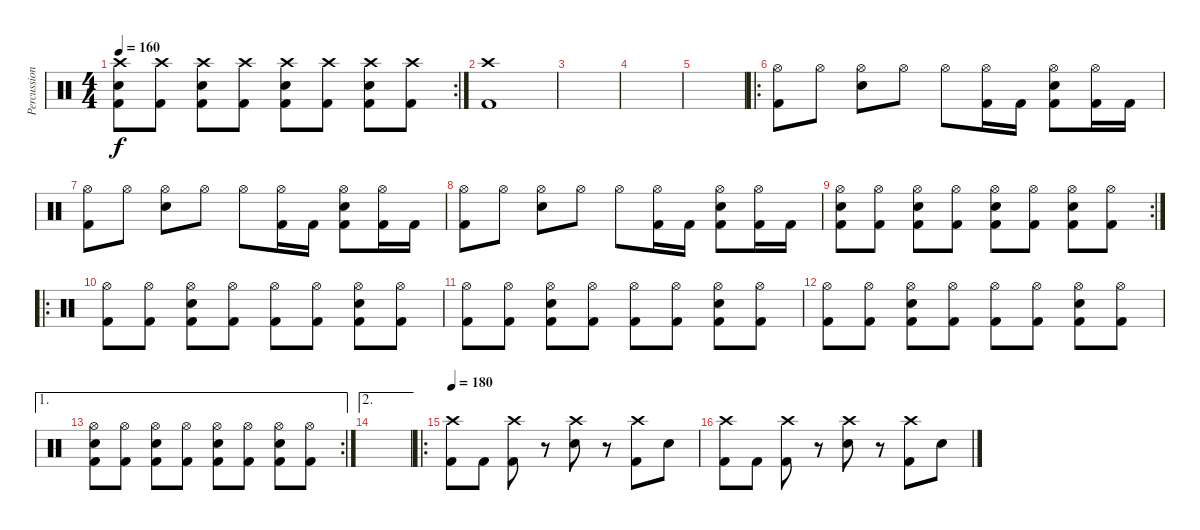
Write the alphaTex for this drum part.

\track ("Percussion" "Percussion") {instrument percussion}
\staff {score}
\articulation defaults
\rc 2
\ts (4 4)
\tempo 160
\clef neutral
\ks c
("Crash high (hit)" "Snare (hit) 2" "Kick (hit) 2").8{dy f} ("Crash high (hit)" "Kick (hit) 2").8 ("Crash high (hit)" "Snare (hit) 2" "Kick (hit) 2").8 ("Crash high (hit)" "Kick (hit) 2").8 ("Crash high (hit)" "Snare (hit) 2" "Kick (hit) 2").8 ("Crash high (hit)" "Kick (hit) 2").8 ("Crash high (hit)" "Snare (hit) 2" "Kick (hit) 2").8 ("Crash high (hit)" "Kick (hit) 2").8 |
("Crash high (hit)" "Kick (hit) 2").1 |
|
|
|
\ro
("Hi-Hat (open)" "Kick (hit) 2").8 "Hi-Hat (open)".8 ("Hi-Hat (open)" "Snare (hit) 2").8 "Hi-Hat (open)".8 "Hi-Hat (open)".8 ("Hi-Hat (open)" "Kick (hit) 2").16 "Kick (hit) 2".16 ("Hi-Hat (open)" "Snare (hit) 2" "Kick (hit) 2").8 ("Hi-Hat (open)" "Kick (hit) 2").16 "Kick (hit) 2".16 |
("Hi-Hat (open)" "Kick (hit) 2").8 "Hi-Hat (open)".8 ("Hi-Hat (open)" "Snare (hit) 2").8 "Hi-Hat (open)".8 "Hi-Hat (open)".8 ("Hi-Hat (open)" "Kick (hit) 2").16 "Kick (hit) 2".16 ("Hi-Hat (open)" "Snare (hit) 2" "Kick (hit) 2").8 ("Hi-Hat (open)" "Kick (hit) 2").16 "Kick (hit) 2".16 |
("Hi-Hat (open)" "Kick (hit) 2").8 "Hi-Hat (open)".8 ("Hi-Hat (open)" "Snare (hit) 2").8 "Hi-Hat (open)".8 "Hi-Hat (open)".8 ("Hi-Hat (open)" "Kick (hit) 2").16 "Kick (hit) 2".16 ("Hi-Hat (open)" "Snare (hit) 2" "Kick (hit) 2").8 ("Hi-Hat (open)" "Kick (hit) 2").16 "Kick (hit) 2".16 |
\rc 2
("Hi-Hat (open)" "Snare (hit) 2" "Kick (hit) 2").8 ("Hi-Hat (open)" "Kick (hit) 2").8 ("Hi-Hat (open)" "Snare (hit) 2" "Kick (hit) 2").8 ("Hi-Hat (open)" "Kick (hit) 2").8 ("Hi-Hat (open)" "Snare (hit) 2" "Kick (hit) 2").8 ("Hi-Hat (open)" "Kick (hit) 2").8 ("Hi-Hat (open)" "Snare (hit) 2" "Kick (hit) 2").8 ("Hi-Hat (open)" "Kick (hit) 2").8 |
\ro
("Hi-Hat (open)" "Kick (hit) 2").8 ("Hi-Hat (open)" "Kick (hit) 2").8 ("Hi-Hat (open)" "Snare (hit) 2" "Kick (hit) 2").8 ("Hi-Hat (open)" "Kick (hit) 2").8 ("Hi-Hat (open)" "Kick (hit) 2").8 ("Hi-Hat (open)" "Kick (hit) 2").8 ("Hi-Hat (open)" "Snare (hit) 2" "Kick (hit) 2").8 ("Hi-Hat (open)" "Kick (hit) 2").8 |
("Hi-Hat (open)" "Kick (hit) 2").8 ("Hi-Hat (open)" "Kick (hit) 2").8 ("Hi-Hat (open)" "Snare (hit) 2" "Kick (hit) 2").8 ("Hi-Hat (open)" "Kick (hit) 2").8 ("Hi-Hat (open)" "Kick (hit) 2").8 ("Hi-Hat (open)" "Kick (hit) 2").8 ("Hi-Hat (open)" "Snare (hit) 2" "Kick (hit) 2").8 ("Hi-Hat (open)" "Kick (hit) 2").8 |
("Hi-Hat (open)" "Kick (hit) 2").8 ("Hi-Hat (open)" "Kick (hit) 2").8 ("Hi-Hat (open)" "Snare (hit) 2" "Kick (hit) 2").8 ("Hi-Hat (open)" "Kick (hit) 2").8 ("Hi-Hat (open)" "Kick (hit) 2").8 ("Hi-Hat (open)" "Kick (hit) 2").8 ("Hi-Hat (open)" "Snare (hit) 2" "Kick (hit) 2").8 ("Hi-Hat (open)" "Kick (hit) 2").8 |
\ae 1
\rc 2
("Hi-Hat (open)" "Snare (hit) 2" "Kick (hit) 2").8 ("Hi-Hat (open)" "Kick (hit) 2").8 ("Hi-Hat (open)" "Snare (hit) 2" "Kick (hit) 2").8 ("Hi-Hat (open)" "Kick (hit) 2").8 ("Hi-Hat (open)" "Snare (hit) 2" "Kick (hit) 2").8 ("Hi-Hat (open)" "Kick (hit) 2").8 ("Hi-Hat (open)" "Snare (hit) 2" "Kick (hit) 2").8 ("Hi-Hat (open)" "Kick (hit) 2").8 |
\ae 2
|
\ro
\tempo 180
("Crash high (hit)" "Kick (hit) 2").8 "Kick (hit) 2".8 ("Crash high (hit)" "Kick (hit) 2").8 r.8 ("Crash high (hit)" "Snare (hit) 2").8 r.8 ("Crash high (hit)" "Kick (hit) 2").8 "Snare (hit) 2".8 |
("Crash high (hit)" "Kick (hit) 2").8 "Kick (hit) 2".8 ("Crash high (hit)" "Kick (hit) 2").8 r.8 ("Crash high (hit)" "Snare (hit) 2").8 r.8 ("Crash high (hit)" "Kick (hit) 2").8 "Snare (hit) 2".8
